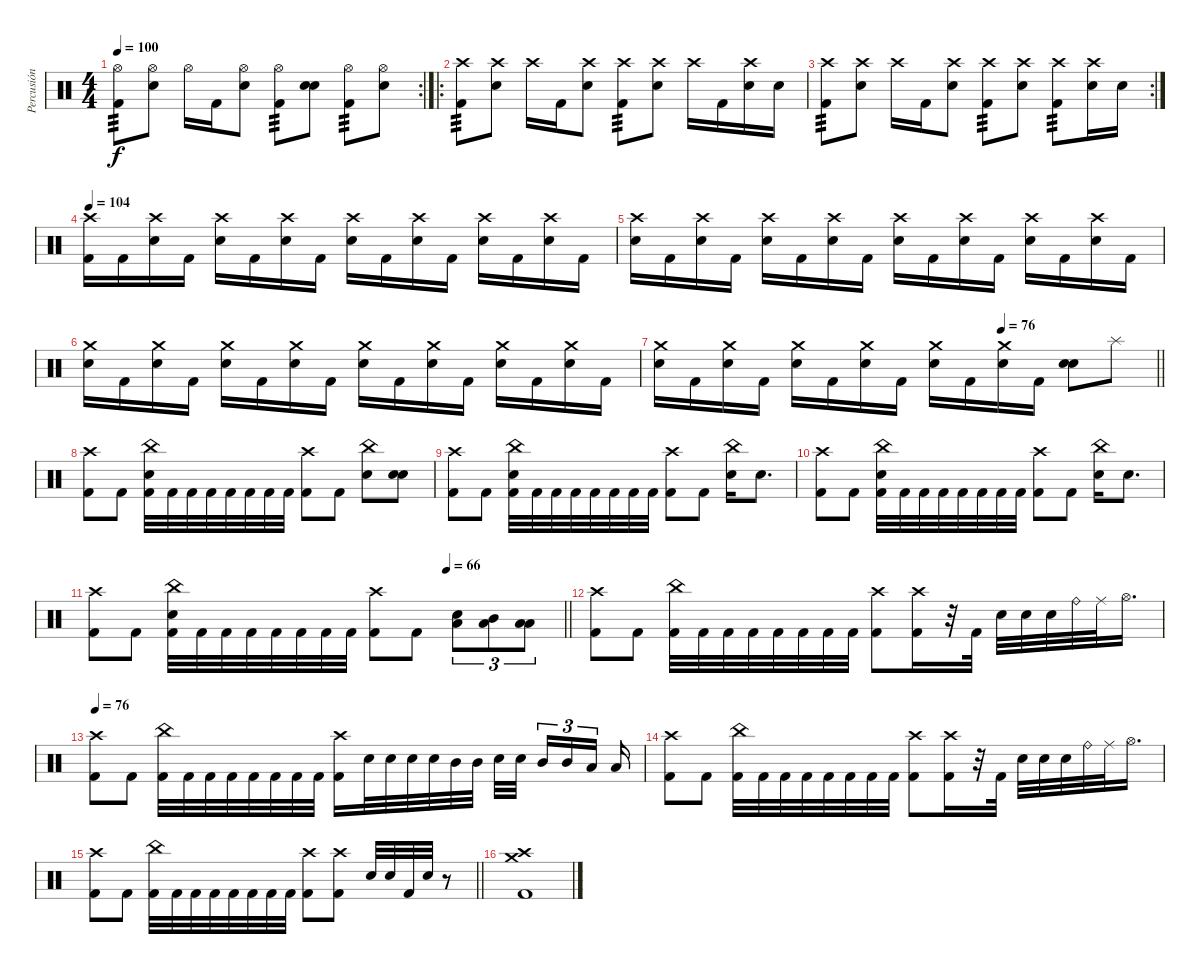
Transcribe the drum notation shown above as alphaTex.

\track ("Percusión" "Percusión") {instrument percussion}
\staff
\articulation defaults
\rc 2
\ts (4 4)
\tempo 100
\clef neutral
\ks c
("Kick (hit) 2" "Hi-Hat (open)").8{tp 3 dy f} ("Hi-Hat (open)" "Electric Snare (hit)").8 "Hi-Hat (open)".16 "Kick (hit) 2".16 ("Hi-Hat (open)" "Electric Snare (hit)").8 ("Kick (hit) 2" "Hi-Hat (open)").8{tp 3} ("Snare (hit) 2" "Electric Snare (hit)").8 ("Kick (hit) 2" "Hi-Hat (open)").8{tp 3} ("Hi-Hat (open)" "Electric Snare (hit)").8 |
\ro
("Kick (hit) 2" "Crash high (hit)").8{tp 3} ("Crash high (hit)" "Electric Snare (hit)").8 "Crash high (hit)".16 "Kick (hit) 2".16 ("Crash high (hit)" "Electric Snare (hit)").8 ("Kick (hit) 2" "Crash high (hit)").8{tp 3} ("Crash high (hit)" "Electric Snare (hit)").8 "Crash high (hit)".16 "Kick (hit) 2".16 ("Crash high (hit)" "Electric Snare (hit)").16 "Electric Snare (hit)".16 |
\rc 2
("Kick (hit) 2" "Crash high (hit)").8{tp 3} ("Crash high (hit)" "Electric Snare (hit)").8 "Crash high (hit)".16 "Kick (hit) 2".16 ("Crash high (hit)" "Electric Snare (hit)").8 ("Kick (hit) 2" "Crash high (hit)").8{tp 3} ("Crash high (hit)" "Electric Snare (hit)").8 ("Kick (hit) 2" "Crash high (hit)").8{tp 3} ("Crash high (hit)" "Electric Snare (hit)").16 "Electric Snare (hit)".16 |
\tempo 104
("Kick (hit) 2" "Crash high (hit)").16 "Kick (hit) 2".16 ("Crash high (hit)" "Electric Snare (hit)").16 "Kick (hit) 2".16 ("Crash high (hit)" "Electric Snare (hit)").16 "Kick (hit) 2".16 ("Crash high (hit)" "Electric Snare (hit)").16 "Kick (hit) 2".16 ("Crash high (hit)" "Electric Snare (hit)").16 "Kick (hit) 2".16 ("Crash high (hit)" "Electric Snare (hit)").16 "Kick (hit) 2".16 ("Crash high (hit)" "Electric Snare (hit)").16 "Kick (hit) 2".16 ("Crash high (hit)" "Electric Snare (hit)").16 "Kick (hit) 2".16 |
("Crash high (hit)" "Electric Snare (hit)").16 "Kick (hit) 2".16 ("Crash high (hit)" "Electric Snare (hit)").16 "Kick (hit) 2".16 ("Crash high (hit)" "Electric Snare (hit)").16 "Kick (hit) 2".16 ("Crash high (hit)" "Electric Snare (hit)").16 "Kick (hit) 2".16 ("Crash high (hit)" "Electric Snare (hit)").16 "Kick (hit) 2".16 ("Crash high (hit)" "Electric Snare (hit)").16 "Kick (hit) 2".16 ("Crash high (hit)" "Electric Snare (hit)").16 "Kick (hit) 2".16 ("Crash high (hit)" "Electric Snare (hit)").16 "Kick (hit) 2".16 |
("Crash medium (hit)" "Electric Snare (hit)").16 "Kick (hit) 2".16 ("Crash medium (hit)" "Electric Snare (hit)").16 "Kick (hit) 2".16 ("Crash medium (hit)" "Electric Snare (hit)").16 "Kick (hit) 2".16 ("Crash medium (hit)" "Electric Snare (hit)").16 "Kick (hit) 2".16 ("Crash medium (hit)" "Electric Snare (hit)").16 "Kick (hit) 2".16 ("Crash medium (hit)" "Electric Snare (hit)").16 "Kick (hit) 2".16 ("Crash medium (hit)" "Electric Snare (hit)").16 "Kick (hit) 2".16 ("Crash medium (hit)" "Electric Snare (hit)").16 "Kick (hit) 2".16 |
\tempo (76 0.6875)
\barLineRight lightlight
("Crash medium (hit)" "Electric Snare (hit)").16 "Kick (hit) 2".16 ("Crash medium (hit)" "Electric Snare (hit)").16 "Kick (hit) 2".16 ("Crash medium (hit)" "Electric Snare (hit)").16 "Kick (hit) 2".16 ("Crash medium (hit)" "Electric Snare (hit)").16 "Kick (hit) 2".16 ("Crash medium (hit)" "Electric Snare (hit)").16 "Kick (hit) 2".16 ("Crash medium (hit)" "Electric Snare (hit)").16 "Kick (hit) 2".16 ("Snare (hit) 2" "Electric Snare (hit)").8 "Splash (hit)".8 |
\section ("" "")
("Kick (hit) 2" "Crash high (hit)").8 "Kick (hit) 2".8 ("Kick (hit) 2" "China (hit)" "Electric Snare (hit)").32 "Kick (hit) 2".32 "Kick (hit) 2".32 "Kick (hit) 2".32 "Kick (hit) 2".32 "Kick (hit) 2".32 "Kick (hit) 2".32 "Kick (hit) 2".32 ("Kick (hit) 2" "Crash high (hit)").8 "Kick (hit) 2".8 ("China (hit)" "Electric Snare (hit)").8 ("Snare (hit) 2" "Electric Snare (hit)").8 |
("Kick (hit) 2" "Crash high (hit)").8 "Kick (hit) 2".8 ("Kick (hit) 2" "China (hit)" "Electric Snare (hit)").32 "Kick (hit) 2".32 "Kick (hit) 2".32 "Kick (hit) 2".32 "Kick (hit) 2".32 "Kick (hit) 2".32 "Kick (hit) 2".32 "Kick (hit) 2".32 ("Kick (hit) 2" "Crash high (hit)").8 "Kick (hit) 2".8 ("China (hit)" "Electric Snare (hit)").16 "Electric Snare (hit)".8{d} |
("Kick (hit) 2" "Crash high (hit)").8 "Kick (hit) 2".8 ("Kick (hit) 2" "China (hit)" "Electric Snare (hit)").32 "Kick (hit) 2".32 "Kick (hit) 2".32 "Kick (hit) 2".32 "Kick (hit) 2".32 "Kick (hit) 2".32 "Kick (hit) 2".32 "Kick (hit) 2".32 ("Kick (hit) 2" "Crash high (hit)").8 "Kick (hit) 2".8 ("China (hit)" "Electric Snare (hit)").16 "Electric Snare (hit)".8{d} |
\tempo (66 0.75)
\barLineRight lightlight
("Kick (hit) 2" "Crash high (hit)").8 "Kick (hit) 2".8 ("Kick (hit) 2" "China (hit)" "Electric Snare (hit)").32 "Kick (hit) 2".32 "Kick (hit) 2".32 "Kick (hit) 2".32 "Kick (hit) 2".32 "Kick (hit) 2".32 "Kick (hit) 2".32 "Kick (hit) 2".32 ("Kick (hit) 2" "Crash high (hit)").8 "Kick (hit) 2".8 ("Electric Snare (hit)" "Low Floor Tom (hit)").8{tu (3 2)} ("Mid Tom (hit)" "Low Floor Tom (hit)").8{tu (3 2)} ("Low Tom (hit)" "Low Floor Tom (hit)").8{tu (3 2)} |
\section ("" "")
("Kick (hit) 2" "Crash high (hit)").8 "Kick (hit) 2".8 ("Kick (hit) 2" "China (hit)").32 "Kick (hit) 2".32 "Kick (hit) 2".32 "Kick (hit) 2".32 "Kick (hit) 2".32 "Kick (hit) 2".32 "Kick (hit) 2".32 "Kick (hit) 2".32 ("Kick (hit) 2" "Crash high (hit)").8 ("Kick (hit) 2" "Crash high (hit)").16 r.32 "Kick (hit) 2".32 "Electric Snare (hit)".32 "Electric Snare (hit)".32 "Electric Snare (hit)".32 "Ride (bell)".32 "Ride (middle)".32 "Hi-Hat (open)".16{d} |
\tempo 76
("Kick (hit) 2" "Crash high (hit)").8 "Kick (hit) 2".8 ("Kick (hit) 2" "China (hit)").32 "Kick (hit) 2".32 "Kick (hit) 2".32 "Kick (hit) 2".32 "Kick (hit) 2".32 "Kick (hit) 2".32 "Kick (hit) 2".32 "Kick (hit) 2".32 ("Kick (hit) 2" "Crash high (hit)").16 "Electric Snare (hit)".32 "Electric Snare (hit)".32 "Electric Snare (hit)".32 "Electric Snare (hit)".32 "Mid Tom (hit)".32 "Mid Tom (hit)".32 "Electric Snare (hit)".32 "Electric Snare (hit)".32{beam splitsecondary} "Mid Tom (hit)".16{tu (3 2)} "Mid Tom (hit)".16{tu (3 2)} "Low Tom (hit)".16{tu (3 2) beam splitsecondary} "Low Tom (hit)".16 |
("Kick (hit) 2" "Crash high (hit)").8 "Kick (hit) 2".8 ("Kick (hit) 2" "China (hit)").32 "Kick (hit) 2".32 "Kick (hit) 2".32 "Kick (hit) 2".32 "Kick (hit) 2".32 "Kick (hit) 2".32 "Kick (hit) 2".32 "Kick (hit) 2".32 ("Kick (hit) 2" "Crash high (hit)").8 ("Kick (hit) 2" "Crash high (hit)").16 r.32 "Kick (hit) 2".32 "Electric Snare (hit)".32 "Electric Snare (hit)".32 "Electric Snare (hit)".32 "Ride (bell)".32 "Ride (middle)".32 "Hi-Hat (open)".16{d} |
\barLineRight lightlight
("Kick (hit) 2" "Crash high (hit)").8 "Kick (hit) 2".8 ("Kick (hit) 2" "China (hit)").32 "Kick (hit) 2".32 "Kick (hit) 2".32 "Kick (hit) 2".32 "Kick (hit) 2".32 "Kick (hit) 2".32 "Kick (hit) 2".32 "Kick (hit) 2".32 ("Kick (hit) 2" "Crash high (hit)").8 ("Kick (hit) 2" "Crash high (hit)").8 "Electric Snare (hit)".32 "Electric Snare (hit)".32 "Kick (hit) 2".32 "Electric Snare (hit)".32 r.8 |
\section ("" "")
("Kick (hit) 2" "Crash high (hit)" "Crash medium (hit)").1
